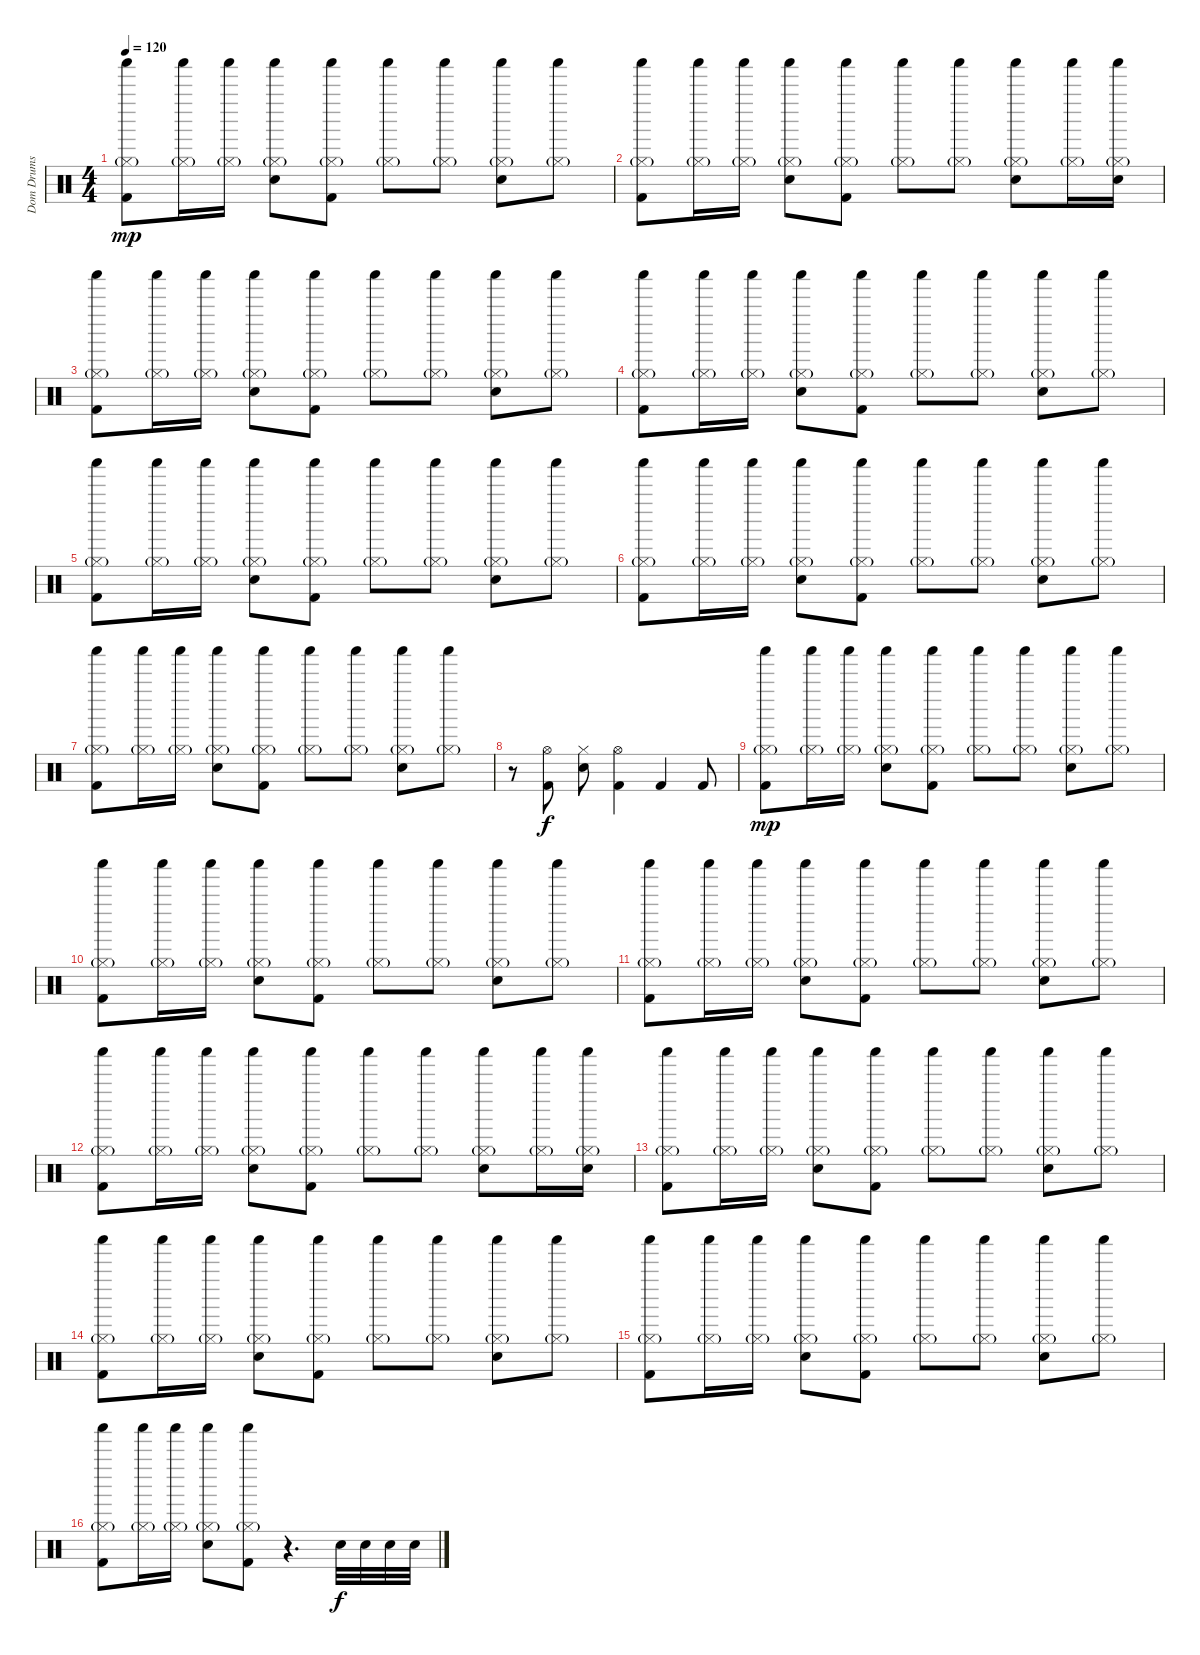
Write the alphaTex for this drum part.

\track ("Dom Drums" "Dom Drums") {instrument percussion}
\staff {score}
\articulation defaults
\ts (4 4)
\tempo 120
\clef neutral
\ks c
("Shaker (hit)" "Hi-Hat (closed)"{g} "Kick (hit) 2").8{dy mp} ("Shaker (hit)" "Hi-Hat (closed)"{g}).16 ("Shaker (hit)" "Hi-Hat (closed)"{g}).16 ("Shaker (hit)" "Hi-Hat (closed)"{g} "Electric Snare (hit)").8 ("Shaker (hit)" "Hi-Hat (closed)"{g} "Kick (hit) 2").8 ("Shaker (hit)" "Hi-Hat (closed)"{g}).8 ("Shaker (hit)" "Hi-Hat (closed)"{g}).8 ("Shaker (hit)" "Hi-Hat (closed)"{g} "Electric Snare (hit)").8 ("Shaker (hit)" "Hi-Hat (closed)"{g}).8 |
("Shaker (hit)" "Hi-Hat (closed)"{g} "Kick (hit) 2").8 ("Shaker (hit)" "Hi-Hat (closed)"{g}).16 ("Shaker (hit)" "Hi-Hat (closed)"{g}).16 ("Shaker (hit)" "Hi-Hat (closed)"{g} "Electric Snare (hit)").8 ("Shaker (hit)" "Hi-Hat (closed)"{g} "Kick (hit) 2").8 ("Shaker (hit)" "Hi-Hat (closed)"{g}).8 ("Shaker (hit)" "Hi-Hat (closed)"{g}).8 ("Shaker (hit)" "Hi-Hat (closed)"{g} "Electric Snare (hit)").8 ("Shaker (hit)" "Hi-Hat (closed)"{g}).16 ("Shaker (hit)" "Hi-Hat (closed)"{g} "Electric Snare (hit)").16 |
("Shaker (hit)" "Hi-Hat (closed)"{g} "Kick (hit) 2").8 ("Shaker (hit)" "Hi-Hat (closed)"{g}).16 ("Shaker (hit)" "Hi-Hat (closed)"{g}).16 ("Shaker (hit)" "Hi-Hat (closed)"{g} "Electric Snare (hit)").8 ("Shaker (hit)" "Hi-Hat (closed)"{g} "Kick (hit) 2").8 ("Shaker (hit)" "Hi-Hat (closed)"{g}).8 ("Shaker (hit)" "Hi-Hat (closed)"{g}).8 ("Shaker (hit)" "Hi-Hat (closed)"{g} "Electric Snare (hit)").8 ("Shaker (hit)" "Hi-Hat (closed)"{g}).8 |
("Shaker (hit)" "Hi-Hat (closed)"{g} "Kick (hit) 2").8 ("Shaker (hit)" "Hi-Hat (closed)"{g}).16 ("Shaker (hit)" "Hi-Hat (closed)"{g}).16 ("Shaker (hit)" "Hi-Hat (closed)"{g} "Electric Snare (hit)").8 ("Shaker (hit)" "Hi-Hat (closed)"{g} "Kick (hit) 2").8 ("Shaker (hit)" "Hi-Hat (closed)"{g}).8 ("Shaker (hit)" "Hi-Hat (closed)"{g}).8 ("Shaker (hit)" "Hi-Hat (closed)"{g} "Electric Snare (hit)").8 ("Shaker (hit)" "Hi-Hat (closed)"{g}).8 |
("Shaker (hit)" "Hi-Hat (closed)"{g} "Kick (hit) 2").8 ("Shaker (hit)" "Hi-Hat (closed)"{g}).16 ("Shaker (hit)" "Hi-Hat (closed)"{g}).16 ("Shaker (hit)" "Hi-Hat (closed)"{g} "Electric Snare (hit)").8 ("Shaker (hit)" "Hi-Hat (closed)"{g} "Kick (hit) 2").8 ("Shaker (hit)" "Hi-Hat (closed)"{g}).8 ("Shaker (hit)" "Hi-Hat (closed)"{g}).8 ("Shaker (hit)" "Hi-Hat (closed)"{g} "Electric Snare (hit)").8 ("Shaker (hit)" "Hi-Hat (closed)"{g}).8 |
("Shaker (hit)" "Hi-Hat (closed)"{g} "Kick (hit) 2").8 ("Shaker (hit)" "Hi-Hat (closed)"{g}).16 ("Shaker (hit)" "Hi-Hat (closed)"{g}).16 ("Shaker (hit)" "Hi-Hat (closed)"{g} "Electric Snare (hit)").8 ("Shaker (hit)" "Hi-Hat (closed)"{g} "Kick (hit) 2").8 ("Shaker (hit)" "Hi-Hat (closed)"{g}).8 ("Shaker (hit)" "Hi-Hat (closed)"{g}).8 ("Shaker (hit)" "Hi-Hat (closed)"{g} "Electric Snare (hit)").8 ("Shaker (hit)" "Hi-Hat (closed)"{g}).8 |
("Shaker (hit)" "Hi-Hat (closed)"{g} "Kick (hit) 2").8 ("Shaker (hit)" "Hi-Hat (closed)"{g}).16 ("Shaker (hit)" "Hi-Hat (closed)"{g}).16 ("Shaker (hit)" "Hi-Hat (closed)"{g} "Electric Snare (hit)").8 ("Shaker (hit)" "Hi-Hat (closed)"{g} "Kick (hit) 2").8 ("Shaker (hit)" "Hi-Hat (closed)"{g}).8 ("Shaker (hit)" "Hi-Hat (closed)"{g}).8 ("Shaker (hit)" "Hi-Hat (closed)"{g} "Electric Snare (hit)").8 ("Shaker (hit)" "Hi-Hat (closed)"{g}).8 |
r.8 ("Hi-Hat (open)" "Kick (hit) 2").8{dy f} ("Hi-Hat (closed)" "Electric Snare (hit)").8 ("Hi-Hat (open)" "Kick (hit) 2").4 "Kick (hit) 2".4 "Kick (hit) 2".8 |
("Shaker (hit)" "Hi-Hat (closed)"{g} "Kick (hit) 2").8{dy mp} ("Shaker (hit)" "Hi-Hat (closed)"{g}).16 ("Shaker (hit)" "Hi-Hat (closed)"{g}).16 ("Shaker (hit)" "Hi-Hat (closed)"{g} "Electric Snare (hit)").8 ("Shaker (hit)" "Hi-Hat (closed)"{g} "Kick (hit) 2").8 ("Shaker (hit)" "Hi-Hat (closed)"{g}).8 ("Shaker (hit)" "Hi-Hat (closed)"{g}).8 ("Shaker (hit)" "Hi-Hat (closed)"{g} "Electric Snare (hit)").8 ("Shaker (hit)" "Hi-Hat (closed)"{g}).8 |
("Shaker (hit)" "Hi-Hat (closed)"{g} "Kick (hit) 2").8 ("Shaker (hit)" "Hi-Hat (closed)"{g}).16 ("Shaker (hit)" "Hi-Hat (closed)"{g}).16 ("Shaker (hit)" "Hi-Hat (closed)"{g} "Electric Snare (hit)").8 ("Shaker (hit)" "Hi-Hat (closed)"{g} "Kick (hit) 2").8 ("Shaker (hit)" "Hi-Hat (closed)"{g}).8 ("Shaker (hit)" "Hi-Hat (closed)"{g}).8 ("Shaker (hit)" "Hi-Hat (closed)"{g} "Electric Snare (hit)").8 ("Shaker (hit)" "Hi-Hat (closed)"{g}).8 |
("Shaker (hit)" "Hi-Hat (closed)"{g} "Kick (hit) 2").8 ("Shaker (hit)" "Hi-Hat (closed)"{g}).16 ("Shaker (hit)" "Hi-Hat (closed)"{g}).16 ("Shaker (hit)" "Hi-Hat (closed)"{g} "Electric Snare (hit)").8 ("Shaker (hit)" "Hi-Hat (closed)"{g} "Kick (hit) 2").8 ("Shaker (hit)" "Hi-Hat (closed)"{g}).8 ("Shaker (hit)" "Hi-Hat (closed)"{g}).8 ("Shaker (hit)" "Hi-Hat (closed)"{g} "Electric Snare (hit)").8 ("Shaker (hit)" "Hi-Hat (closed)"{g}).8 |
("Shaker (hit)" "Hi-Hat (closed)"{g} "Kick (hit) 2").8 ("Shaker (hit)" "Hi-Hat (closed)"{g}).16 ("Shaker (hit)" "Hi-Hat (closed)"{g}).16 ("Shaker (hit)" "Hi-Hat (closed)"{g} "Electric Snare (hit)").8 ("Shaker (hit)" "Hi-Hat (closed)"{g} "Kick (hit) 2").8 ("Shaker (hit)" "Hi-Hat (closed)"{g}).8 ("Shaker (hit)" "Hi-Hat (closed)"{g}).8 ("Shaker (hit)" "Hi-Hat (closed)"{g} "Electric Snare (hit)").8 ("Shaker (hit)" "Hi-Hat (closed)"{g}).16 ("Shaker (hit)" "Hi-Hat (closed)"{g} "Electric Snare (hit)").16 |
("Shaker (hit)" "Hi-Hat (closed)"{g} "Kick (hit) 2").8 ("Shaker (hit)" "Hi-Hat (closed)"{g}).16 ("Shaker (hit)" "Hi-Hat (closed)"{g}).16 ("Shaker (hit)" "Hi-Hat (closed)"{g} "Electric Snare (hit)").8 ("Shaker (hit)" "Hi-Hat (closed)"{g} "Kick (hit) 2").8 ("Shaker (hit)" "Hi-Hat (closed)"{g}).8 ("Shaker (hit)" "Hi-Hat (closed)"{g}).8 ("Shaker (hit)" "Hi-Hat (closed)"{g} "Electric Snare (hit)").8 ("Shaker (hit)" "Hi-Hat (closed)"{g}).8 |
("Shaker (hit)" "Hi-Hat (closed)"{g} "Kick (hit) 2").8 ("Shaker (hit)" "Hi-Hat (closed)"{g}).16 ("Shaker (hit)" "Hi-Hat (closed)"{g}).16 ("Shaker (hit)" "Hi-Hat (closed)"{g} "Electric Snare (hit)").8 ("Shaker (hit)" "Hi-Hat (closed)"{g} "Kick (hit) 2").8 ("Shaker (hit)" "Hi-Hat (closed)"{g}).8 ("Shaker (hit)" "Hi-Hat (closed)"{g}).8 ("Shaker (hit)" "Hi-Hat (closed)"{g} "Electric Snare (hit)").8 ("Shaker (hit)" "Hi-Hat (closed)"{g}).8 |
("Shaker (hit)" "Hi-Hat (closed)"{g} "Kick (hit) 2").8 ("Shaker (hit)" "Hi-Hat (closed)"{g}).16 ("Shaker (hit)" "Hi-Hat (closed)"{g}).16 ("Shaker (hit)" "Hi-Hat (closed)"{g} "Electric Snare (hit)").8 ("Shaker (hit)" "Hi-Hat (closed)"{g} "Kick (hit) 2").8 ("Shaker (hit)" "Hi-Hat (closed)"{g}).8 ("Shaker (hit)" "Hi-Hat (closed)"{g}).8 ("Shaker (hit)" "Hi-Hat (closed)"{g} "Electric Snare (hit)").8 ("Shaker (hit)" "Hi-Hat (closed)"{g}).8 |
("Shaker (hit)" "Hi-Hat (closed)"{g} "Kick (hit) 2").8 ("Shaker (hit)" "Hi-Hat (closed)"{g}).16 ("Shaker (hit)" "Hi-Hat (closed)"{g}).16 ("Shaker (hit)" "Hi-Hat (closed)"{g} "Electric Snare (hit)").8 ("Shaker (hit)" "Hi-Hat (closed)"{g} "Kick (hit) 2").8 r.4{d} "Hand Clap (hit)".32{dy f} "Hand Clap (hit)".32 "Hand Clap (hit)".32 "Hand Clap (hit)".32
